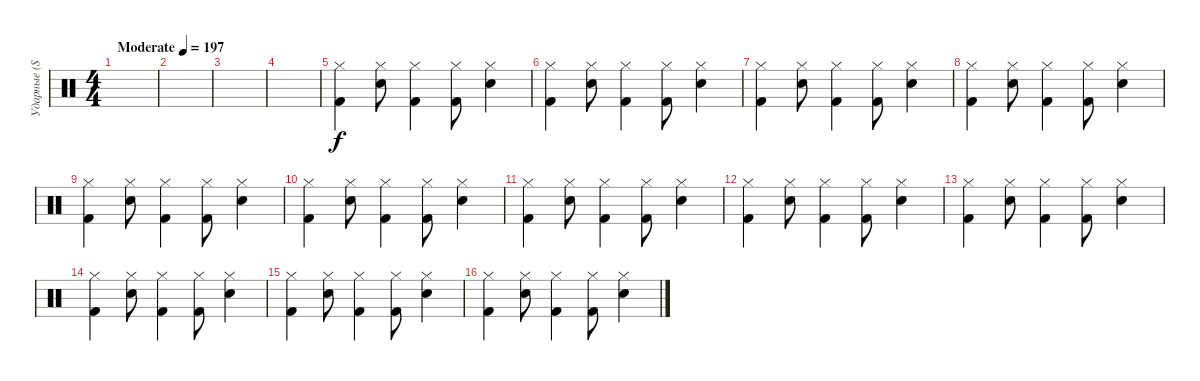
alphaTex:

\track ("Ударные (Stevo32)" "Ударные (S") {instrument percussion}
\staff {score}
\articulation defaults
\ts (4 4)
\tempo (197 "Moderate")
\clef neutral
\ks c
|
|
|
|
("Hi-Hat (closed)" "Kick (hit) 2").4 ("Hi-Hat (closed)" "Snare (hit) 2").8 ("Hi-Hat (closed)" "Kick (hit) 2").4 ("Hi-Hat (closed)" "Kick (hit) 2").8 ("Hi-Hat (closed)" "Snare (hit) 2").4 |
("Hi-Hat (closed)" "Kick (hit) 2").4 ("Hi-Hat (closed)" "Snare (hit) 2").8 ("Hi-Hat (closed)" "Kick (hit) 2").4 ("Hi-Hat (closed)" "Kick (hit) 2").8 ("Hi-Hat (closed)" "Snare (hit) 2").4 |
("Hi-Hat (closed)" "Kick (hit) 2").4 ("Hi-Hat (closed)" "Snare (hit) 2").8 ("Hi-Hat (closed)" "Kick (hit) 2").4 ("Hi-Hat (closed)" "Kick (hit) 2").8 ("Hi-Hat (closed)" "Snare (hit) 2").4 |
("Hi-Hat (closed)" "Kick (hit) 2").4 ("Hi-Hat (closed)" "Snare (hit) 2").8 ("Hi-Hat (closed)" "Kick (hit) 2").4 ("Hi-Hat (closed)" "Kick (hit) 2").8 ("Hi-Hat (closed)" "Snare (hit) 2").4 |
("Hi-Hat (closed)" "Kick (hit) 2").4 ("Hi-Hat (closed)" "Snare (hit) 2").8 ("Hi-Hat (closed)" "Kick (hit) 2").4 ("Hi-Hat (closed)" "Kick (hit) 2").8 ("Hi-Hat (closed)" "Snare (hit) 2").4 |
("Hi-Hat (closed)" "Kick (hit) 2").4 ("Hi-Hat (closed)" "Snare (hit) 2").8 ("Hi-Hat (closed)" "Kick (hit) 2").4 ("Hi-Hat (closed)" "Kick (hit) 2").8 ("Hi-Hat (closed)" "Snare (hit) 2").4 |
("Hi-Hat (closed)" "Kick (hit) 2").4 ("Hi-Hat (closed)" "Snare (hit) 2").8 ("Hi-Hat (closed)" "Kick (hit) 2").4 ("Hi-Hat (closed)" "Kick (hit) 2").8 ("Hi-Hat (closed)" "Snare (hit) 2").4 |
("Hi-Hat (closed)" "Kick (hit) 2").4 ("Hi-Hat (closed)" "Snare (hit) 2").8 ("Hi-Hat (closed)" "Kick (hit) 2").4 ("Hi-Hat (closed)" "Kick (hit) 2").8 ("Hi-Hat (closed)" "Snare (hit) 2").4 |
("Hi-Hat (closed)" "Kick (hit) 2").4 ("Hi-Hat (closed)" "Snare (hit) 2").8 ("Hi-Hat (closed)" "Kick (hit) 2").4 ("Hi-Hat (closed)" "Kick (hit) 2").8 ("Hi-Hat (closed)" "Snare (hit) 2").4 |
("Hi-Hat (closed)" "Kick (hit) 2").4 ("Hi-Hat (closed)" "Snare (hit) 2").8 ("Hi-Hat (closed)" "Kick (hit) 2").4 ("Hi-Hat (closed)" "Kick (hit) 2").8 ("Hi-Hat (closed)" "Snare (hit) 2").4 |
("Hi-Hat (closed)" "Kick (hit) 2").4 ("Hi-Hat (closed)" "Snare (hit) 2").8 ("Hi-Hat (closed)" "Kick (hit) 2").4 ("Hi-Hat (closed)" "Kick (hit) 2").8 ("Hi-Hat (closed)" "Snare (hit) 2").4 |
("Hi-Hat (closed)" "Kick (hit) 2").4 ("Hi-Hat (closed)" "Snare (hit) 2").8 ("Hi-Hat (closed)" "Kick (hit) 2").4 ("Hi-Hat (closed)" "Kick (hit) 2").8 ("Hi-Hat (closed)" "Snare (hit) 2").4
